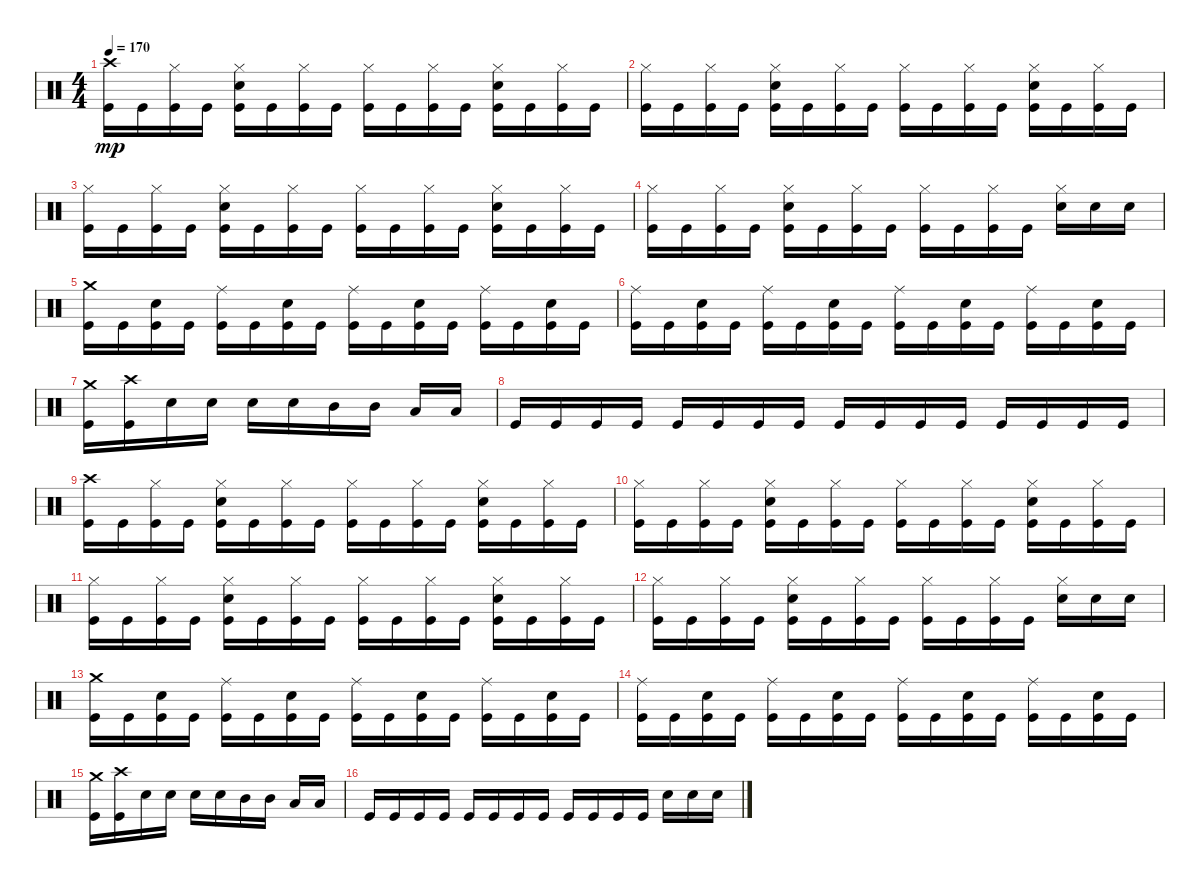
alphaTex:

\track "" {instrument percussion}
\staff {score}
\articulation defaults
\ts (4 4)
\tempo 170
\clef neutral
\ks c
("Crash high (hit)" "Kick (hit)").16{dy mp} "Kick (hit)".16 ("Hi-Hat (closed)" "Kick (hit)").16 "Kick (hit)".16 ("Hi-Hat (closed)" "Kick (hit)" "Snare (hit) 2").16 "Kick (hit)".16 ("Hi-Hat (closed)" "Kick (hit)").16 "Kick (hit)".16 ("Hi-Hat (closed)" "Kick (hit)").16 "Kick (hit)".16 ("Hi-Hat (closed)" "Kick (hit)").16 "Kick (hit)".16 ("Hi-Hat (closed)" "Kick (hit)" "Snare (hit) 2").16 "Kick (hit)".16 ("Hi-Hat (closed)" "Kick (hit)").16 "Kick (hit)".16 |
("Hi-Hat (closed)" "Kick (hit)").16 "Kick (hit)".16 ("Hi-Hat (closed)" "Kick (hit)").16 "Kick (hit)".16 ("Hi-Hat (closed)" "Snare (hit) 2" "Kick (hit)").16 "Kick (hit)".16 ("Hi-Hat (closed)" "Kick (hit)").16 "Kick (hit)".16 ("Hi-Hat (closed)" "Kick (hit)").16 "Kick (hit)".16 ("Hi-Hat (closed)" "Kick (hit)").16 "Kick (hit)".16 ("Hi-Hat (closed)" "Snare (hit) 2" "Kick (hit)").16 "Kick (hit)".16 ("Hi-Hat (closed)" "Kick (hit)").16 "Kick (hit)".16 |
("Hi-Hat (closed)" "Kick (hit)").16 "Kick (hit)".16 ("Hi-Hat (closed)" "Kick (hit)").16 "Kick (hit)".16 ("Hi-Hat (closed)" "Snare (hit) 2" "Kick (hit)").16 "Kick (hit)".16 ("Hi-Hat (closed)" "Kick (hit)").16 "Kick (hit)".16 ("Hi-Hat (closed)" "Kick (hit)").16 "Kick (hit)".16 ("Hi-Hat (closed)" "Kick (hit)").16 "Kick (hit)".16 ("Hi-Hat (closed)" "Snare (hit) 2" "Kick (hit)").16 "Kick (hit)".16 ("Hi-Hat (closed)" "Kick (hit)").16 "Kick (hit)".16 |
("Hi-Hat (closed)" "Kick (hit)").16 "Kick (hit)".16 ("Hi-Hat (closed)" "Kick (hit)").16 "Kick (hit)".16 ("Hi-Hat (closed)" "Snare (hit) 2" "Kick (hit)").16 "Kick (hit)".16 ("Hi-Hat (closed)" "Kick (hit)").16 "Kick (hit)".16 ("Hi-Hat (closed)" "Kick (hit)").16 "Kick (hit)".16 ("Hi-Hat (closed)" "Kick (hit)").16 "Kick (hit)".16 ("Hi-Hat (closed)" "Snare (hit) 2").16 "Snare (hit) 2".16 "Snare (hit) 2".16 |
("Crash medium (hit)" "Kick (hit)").16 "Kick (hit)".16 ("Kick (hit)" "Snare (hit) 2").16 "Kick (hit)".16 ("Ride (middle)" "Kick (hit)").16 "Kick (hit)".16 ("Kick (hit)" "Snare (hit) 2").16 "Kick (hit)".16 ("Ride (middle)" "Kick (hit)").16 "Kick (hit)".16 ("Kick (hit)" "Snare (hit) 2").16 "Kick (hit)".16 ("Ride (middle)" "Kick (hit)").16 "Kick (hit)".16 ("Kick (hit)" "Snare (hit) 2").16 "Kick (hit)".16 |
("Ride (middle)" "Kick (hit)").16 "Kick (hit)".16 ("Kick (hit)" "Snare (hit) 2").16 "Kick (hit)".16 ("Ride (middle)" "Kick (hit)").16 "Kick (hit)".16 ("Kick (hit)" "Snare (hit) 2").16 "Kick (hit)".16 ("Ride (middle)" "Kick (hit)").16 "Kick (hit)".16 ("Kick (hit)" "Snare (hit) 2").16 "Kick (hit)".16 ("Ride (middle)" "Kick (hit)").16 "Kick (hit)".16 ("Snare (hit) 2" "Kick (hit)").16 "Kick (hit)".16 |
("Crash medium (hit)" "Kick (hit)").16 ("Crash high (hit)" "Kick (hit)").16 "Snare (hit) 2".16 "Snare (hit) 2".16 "Snare (hit) 2".16 "Snare (hit) 2".16 "Mid Tom (hit)".16 "Mid Tom (hit)".16 "Low Tom (hit)".16 "Low Tom (hit)".16 |
"Kick (hit)".16 "Kick (hit)".16 "Kick (hit)".16 "Kick (hit)".16 "Kick (hit)".16 "Kick (hit)".16 "Kick (hit)".16 "Kick (hit)".16 "Kick (hit)".16 "Kick (hit)".16 "Kick (hit)".16 "Kick (hit)".16 "Kick (hit)".16 "Kick (hit)".16 "Kick (hit)".16 "Kick (hit)".16 |
("Crash high (hit)" "Kick (hit)").16 "Kick (hit)".16 ("Hi-Hat (closed)" "Kick (hit)").16 "Kick (hit)".16 ("Hi-Hat (closed)" "Kick (hit)" "Snare (hit) 2").16 "Kick (hit)".16 ("Hi-Hat (closed)" "Kick (hit)").16 "Kick (hit)".16 ("Hi-Hat (closed)" "Kick (hit)").16 "Kick (hit)".16 ("Hi-Hat (closed)" "Kick (hit)").16 "Kick (hit)".16 ("Hi-Hat (closed)" "Kick (hit)" "Snare (hit) 2").16 "Kick (hit)".16 ("Hi-Hat (closed)" "Kick (hit)").16 "Kick (hit)".16 |
("Hi-Hat (closed)" "Kick (hit)").16 "Kick (hit)".16 ("Hi-Hat (closed)" "Kick (hit)").16 "Kick (hit)".16 ("Hi-Hat (closed)" "Snare (hit) 2" "Kick (hit)").16 "Kick (hit)".16 ("Hi-Hat (closed)" "Kick (hit)").16 "Kick (hit)".16 ("Hi-Hat (closed)" "Kick (hit)").16 "Kick (hit)".16 ("Hi-Hat (closed)" "Kick (hit)").16 "Kick (hit)".16 ("Hi-Hat (closed)" "Snare (hit) 2" "Kick (hit)").16 "Kick (hit)".16 ("Hi-Hat (closed)" "Kick (hit)").16 "Kick (hit)".16 |
("Hi-Hat (closed)" "Kick (hit)").16 "Kick (hit)".16 ("Hi-Hat (closed)" "Kick (hit)").16 "Kick (hit)".16 ("Hi-Hat (closed)" "Snare (hit) 2" "Kick (hit)").16 "Kick (hit)".16 ("Hi-Hat (closed)" "Kick (hit)").16 "Kick (hit)".16 ("Hi-Hat (closed)" "Kick (hit)").16 "Kick (hit)".16 ("Hi-Hat (closed)" "Kick (hit)").16 "Kick (hit)".16 ("Hi-Hat (closed)" "Snare (hit) 2" "Kick (hit)").16 "Kick (hit)".16 ("Hi-Hat (closed)" "Kick (hit)").16 "Kick (hit)".16 |
("Hi-Hat (closed)" "Kick (hit)").16 "Kick (hit)".16 ("Hi-Hat (closed)" "Kick (hit)").16 "Kick (hit)".16 ("Hi-Hat (closed)" "Snare (hit) 2" "Kick (hit)").16 "Kick (hit)".16 ("Hi-Hat (closed)" "Kick (hit)").16 "Kick (hit)".16 ("Hi-Hat (closed)" "Kick (hit)").16 "Kick (hit)".16 ("Hi-Hat (closed)" "Kick (hit)").16 "Kick (hit)".16 ("Hi-Hat (closed)" "Snare (hit) 2").16 "Snare (hit) 2".16 "Snare (hit) 2".16 |
("Crash medium (hit)" "Kick (hit)").16 "Kick (hit)".16 ("Kick (hit)" "Snare (hit) 2").16 "Kick (hit)".16 ("Ride (middle)" "Kick (hit)").16 "Kick (hit)".16 ("Kick (hit)" "Snare (hit) 2").16 "Kick (hit)".16 ("Ride (middle)" "Kick (hit)").16 "Kick (hit)".16 ("Kick (hit)" "Snare (hit) 2").16 "Kick (hit)".16 ("Ride (middle)" "Kick (hit)").16 "Kick (hit)".16 ("Kick (hit)" "Snare (hit) 2").16 "Kick (hit)".16 |
("Ride (middle)" "Kick (hit)").16 "Kick (hit)".16 ("Kick (hit)" "Snare (hit) 2").16 "Kick (hit)".16 ("Ride (middle)" "Kick (hit)").16 "Kick (hit)".16 ("Kick (hit)" "Snare (hit) 2").16 "Kick (hit)".16 ("Ride (middle)" "Kick (hit)").16 "Kick (hit)".16 ("Kick (hit)" "Snare (hit) 2").16 "Kick (hit)".16 ("Ride (middle)" "Kick (hit)").16 "Kick (hit)".16 ("Snare (hit) 2" "Kick (hit)").16 "Kick (hit)".16 |
("Crash medium (hit)" "Kick (hit)").16 ("Crash high (hit)" "Kick (hit)").16 "Snare (hit) 2".16 "Snare (hit) 2".16 "Snare (hit) 2".16 "Snare (hit) 2".16 "Mid Tom (hit)".16 "Mid Tom (hit)".16 "Low Tom (hit)".16 "Low Tom (hit)".16 |
"Kick (hit)".16 "Kick (hit)".16 "Kick (hit)".16 "Kick (hit)".16 "Kick (hit)".16 "Kick (hit)".16 "Kick (hit)".16 "Kick (hit)".16 "Kick (hit)".16 "Kick (hit)".16 "Kick (hit)".16 "Kick (hit)".16 "Snare (hit) 2".16 "Snare (hit) 2".16 "Snare (hit) 2".16
